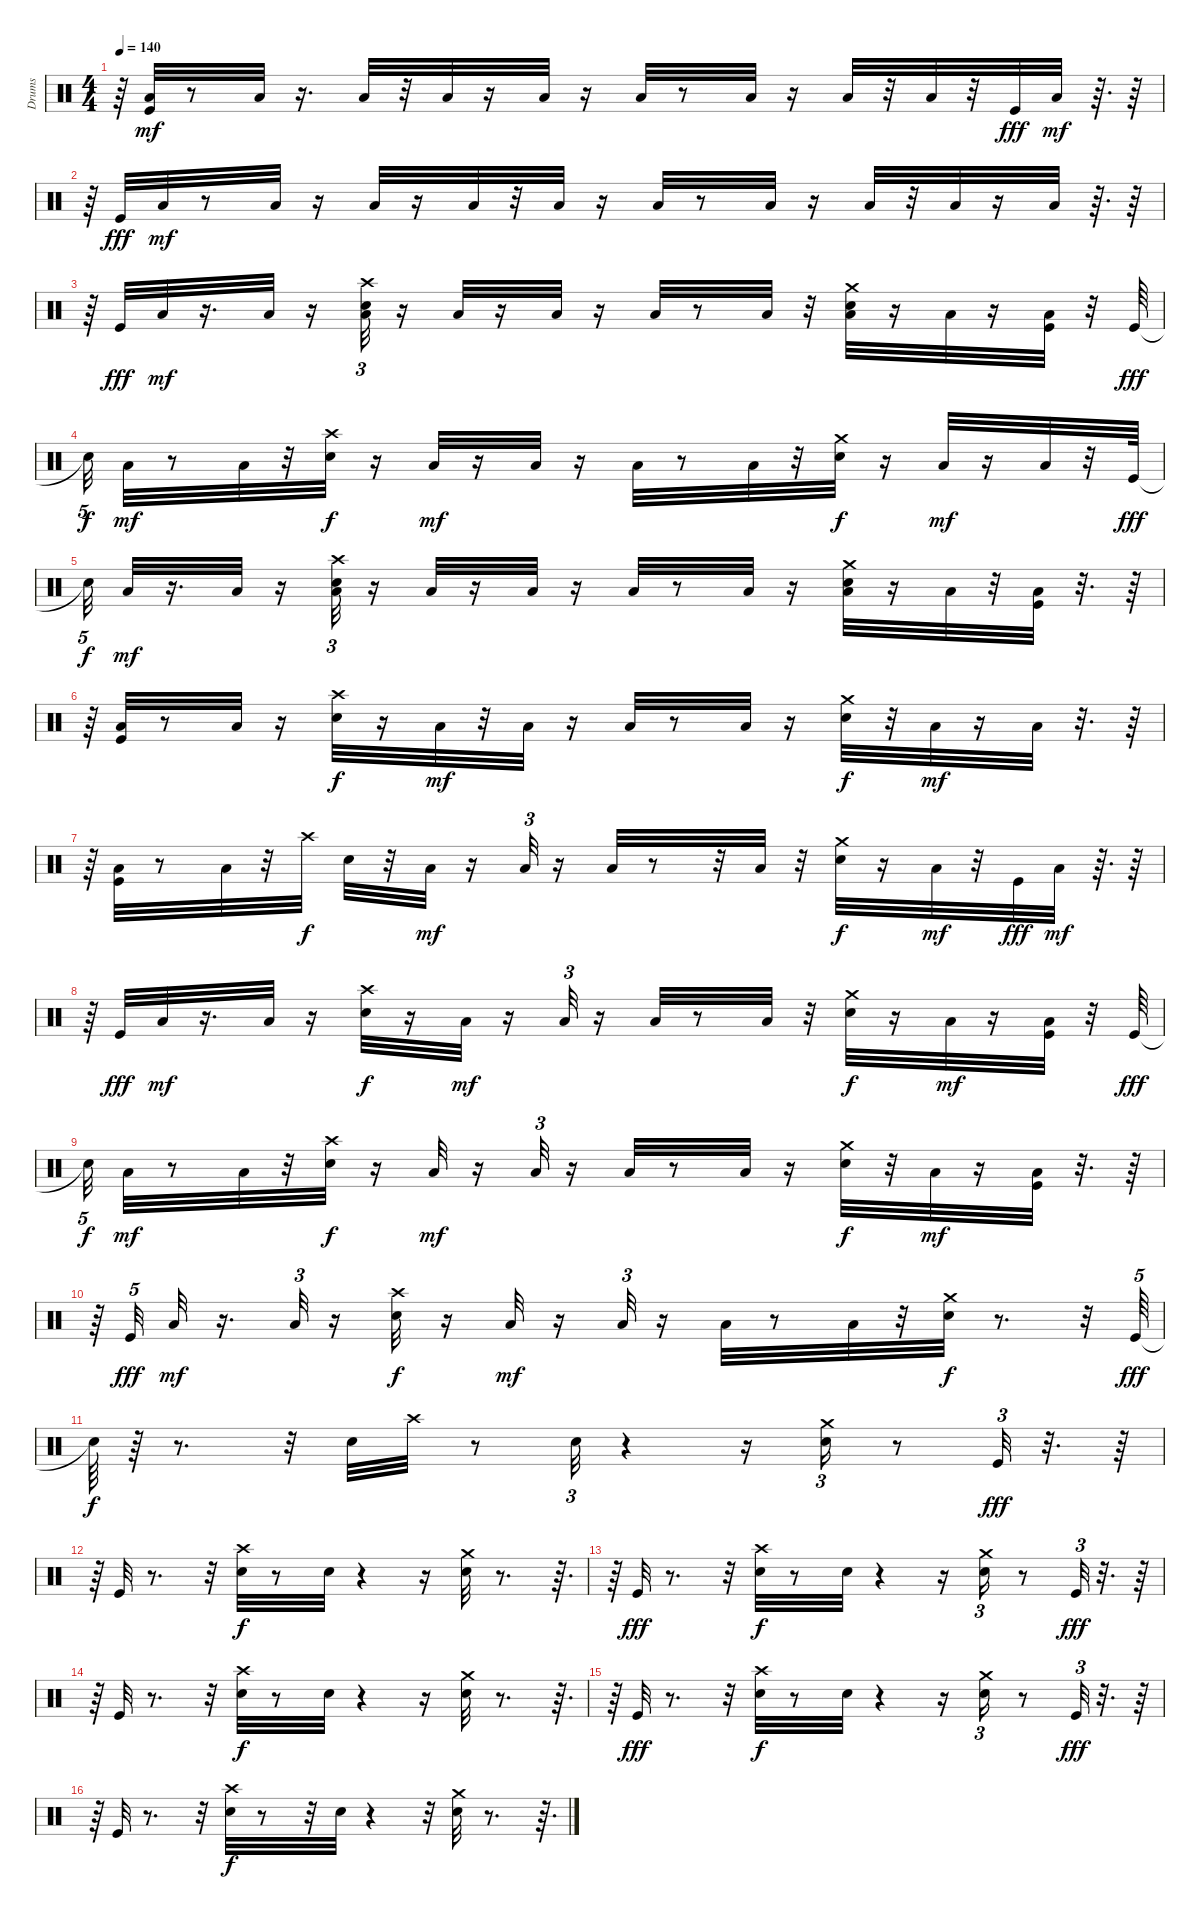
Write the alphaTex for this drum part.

\track ("Drums" "Drums") {instrument percussion}
\staff {score}
\articulation defaults
\ts (4 4)
\tempo 140
\clef neutral
\ks c
r.64{dy mf} ("Kick (hit)" "Low Floor Tom (hit)").32 r.8 "Low Floor Tom (hit)".32 r.16{d} "Low Floor Tom (hit)".32 r.32 "Low Floor Tom (hit)".32 r.16 "Low Floor Tom (hit)".32 r.16 "Low Floor Tom (hit)".32 r.8 "Low Floor Tom (hit)".32 r.16 "Low Floor Tom (hit)".32 r.32 "Low Floor Tom (hit)".32 r.32 "Kick (hit)".32{dy fff} "Low Floor Tom (hit)".32{dy mf} r.64{d} r.64 |
r.64 "Kick (hit)".32{dy fff} "Low Floor Tom (hit)".32{dy mf} r.8 "Low Floor Tom (hit)".32 r.16 "Low Floor Tom (hit)".32 r.16 "Low Floor Tom (hit)".32 r.32 "Low Floor Tom (hit)".32 r.16 "Low Floor Tom (hit)".32 r.8 "Low Floor Tom (hit)".32 r.16 "Low Floor Tom (hit)".32 r.32 "Low Floor Tom (hit)".32 r.16 "Low Floor Tom (hit)".32 r.64{d} r.64 |
r.64 "Kick (hit)".32{dy fff} "Low Floor Tom (hit)".32{dy mf} r.16{d} "Low Floor Tom (hit)".32 r.16 ("Crash high (hit)" "Electric Snare (hit)" "Low Floor Tom (hit)").32{tu (3 2)} r.16 "Low Floor Tom (hit)".32 r.16 "Low Floor Tom (hit)".32 r.16 "Low Floor Tom (hit)".32 r.8 "Low Floor Tom (hit)".32 r.32 ("Electric Snare (hit)" "Crash medium (hit)" "Low Floor Tom (hit)").32 r.16 "Low Floor Tom (hit)".32 r.16 ("Kick (hit)" "Low Floor Tom (hit)").32 r.32 "Kick (hit)".64{dy fff} |
"Snare (hit)"{t}.32{tu (5 4) dy f} "Low Floor Tom (hit)".32{dy mf} r.8 "Low Floor Tom (hit)".32 r.32 ("Electric Snare (hit)" "Crash high (hit)").32{dy f} r.16 "Low Floor Tom (hit)".32{dy mf} r.16 "Low Floor Tom (hit)".32 r.16 "Low Floor Tom (hit)".32 r.8 "Low Floor Tom (hit)".32 r.32 ("Electric Snare (hit)" "Crash medium (hit)").32{dy f} r.16 "Low Floor Tom (hit)".32{dy mf} r.16 "Low Floor Tom (hit)".32 r.32 "Kick (hit)".64{dy fff} |
"Snare (hit)"{t}.32{tu (5 4) dy f} "Low Floor Tom (hit)".32{dy mf} r.16{d} "Low Floor Tom (hit)".32 r.16 ("Crash high (hit)" "Electric Snare (hit)" "Low Floor Tom (hit)").32{tu (3 2)} r.16 "Low Floor Tom (hit)".32 r.16 "Low Floor Tom (hit)".32 r.16 "Low Floor Tom (hit)".32 r.8 "Low Floor Tom (hit)".32 r.16 ("Electric Snare (hit)" "Crash medium (hit)" "Low Floor Tom (hit)").32 r.16 "Low Floor Tom (hit)".32 r.32 ("Kick (hit)" "Low Floor Tom (hit)").32 r.32{d} r.64 |
r.64 ("Kick (hit)" "Low Floor Tom (hit)").32 r.8 "Low Floor Tom (hit)".32 r.16 ("Electric Snare (hit)" "Crash high (hit)").32{dy f} r.16 "Low Floor Tom (hit)".32{dy mf} r.32 "Low Floor Tom (hit)".32 r.16 "Low Floor Tom (hit)".32 r.8 "Low Floor Tom (hit)".32 r.16 ("Electric Snare (hit)" "Crash medium (hit)").32{dy f} r.32 "Low Floor Tom (hit)".32{dy mf} r.16 "Low Floor Tom (hit)".32 r.32{d} r.64 |
r.64 ("Kick (hit)" "Low Floor Tom (hit)").32 r.8 "Low Floor Tom (hit)".32 r.32 "Crash high (hit)".32{dy f} "Electric Snare (hit)".32 r.32 "Low Floor Tom (hit)".32{dy mf} r.16 "Low Floor Tom (hit)".32{tu (3 2)} r.16 "Low Floor Tom (hit)".32 r.8 r.32 "Low Floor Tom (hit)".32 r.32 ("Electric Snare (hit)" "Crash medium (hit)").32{dy f} r.16 "Low Floor Tom (hit)".32{dy mf} r.32 "Kick (hit)".32{dy fff} "Low Floor Tom (hit)".32{dy mf} r.64{d} r.64 |
r.64 "Kick (hit)".32{dy fff} "Low Floor Tom (hit)".32{dy mf} r.16{d} "Low Floor Tom (hit)".32 r.16 ("Crash high (hit)" "Electric Snare (hit)").32{dy f} r.16 "Low Floor Tom (hit)".32{dy mf} r.16 "Low Floor Tom (hit)".32{tu (3 2)} r.16 "Low Floor Tom (hit)".32 r.8 "Low Floor Tom (hit)".32 r.32 ("Electric Snare (hit)" "Crash medium (hit)").32{dy f} r.16 "Low Floor Tom (hit)".32{dy mf} r.16 ("Kick (hit)" "Low Floor Tom (hit)").32 r.32 "Kick (hit)".64{dy fff} |
"Snare (hit)"{t}.32{tu (5 4) dy f} "Low Floor Tom (hit)".32{dy mf} r.8 "Low Floor Tom (hit)".32 r.32 ("Crash high (hit)" "Electric Snare (hit)").32{dy f} r.16 "Low Floor Tom (hit)".32{dy mf} r.16 "Low Floor Tom (hit)".32{tu (3 2)} r.16 "Low Floor Tom (hit)".32 r.8 "Low Floor Tom (hit)".32 r.16 ("Electric Snare (hit)" "Crash medium (hit)").32{dy f} r.32 "Low Floor Tom (hit)".32{dy mf} r.16 ("Kick (hit)" "Low Floor Tom (hit)").32 r.32{d} r.64 |
r.64 "Kick (hit)".32{tu (5 4) dy fff} "Low Floor Tom (hit)".32{dy mf} r.16{d} "Low Floor Tom (hit)".32{tu (3 2)} r.16 ("Crash high (hit)" "Electric Snare (hit)").32{dy f} r.16 "Low Floor Tom (hit)".32{dy mf} r.16 "Low Floor Tom (hit)".32{tu (3 2)} r.16 "Low Floor Tom (hit)".32 r.8 "Low Floor Tom (hit)".32 r.32 ("Electric Snare (hit)" "Crash medium (hit)").32{dy f} r.8{d} r.32 "Kick (hit)".64{tu (5 4) dy fff} |
"Snare (hit)"{t}.64{dy f} r.64 r.8{d} r.32 "Electric Snare (hit)".32 "Crash high (hit)".32 r.8 "Electric Snare (hit)".32{tu (3 2)} r.4 r.16 ("Electric Snare (hit)" "Crash medium (hit)").16{tu (3 2)} r.8 "Kick (hit)".32{tu (3 2) dy fff} r.32{d} r.64 |
r.64 "Kick (hit)".32 r.8{d} r.32 ("Electric Snare (hit)" "Crash high (hit)").32{dy f} r.8 "Electric Snare (hit)".32 r.4 r.16 ("Electric Snare (hit)" "Crash medium (hit)").32 r.8{d} r.64{d} |
r.64 "Kick (hit)".32{dy fff} r.8{d} r.32 ("Electric Snare (hit)" "Crash high (hit)").32{dy f} r.8 "Electric Snare (hit)".32 r.4 r.16 ("Electric Snare (hit)" "Crash medium (hit)").16{tu (3 2)} r.8 "Kick (hit)".32{tu (3 2) dy fff} r.32{d} r.64 |
r.64 "Kick (hit)".32 r.8{d} r.32 ("Electric Snare (hit)" "Crash high (hit)").32{dy f} r.8 "Electric Snare (hit)".32 r.4 r.16 ("Electric Snare (hit)" "Crash medium (hit)").32 r.8{d} r.64{d} |
r.64 "Kick (hit)".32{dy fff} r.8{d} r.32 ("Electric Snare (hit)" "Crash high (hit)").32{dy f} r.8 "Electric Snare (hit)".32 r.4 r.16 ("Electric Snare (hit)" "Crash medium (hit)").16{tu (3 2)} r.8 "Kick (hit)".32{tu (3 2) dy fff} r.32{d} r.64 |
r.64 "Kick (hit)".32 r.8{d} r.32 ("Crash high (hit)" "Electric Snare (hit)").32{dy f} r.8 r.32 "Electric Snare (hit)".32 r.4 r.32 ("Electric Snare (hit)" "Crash medium (hit)").32 r.8{d} r.64{d}
